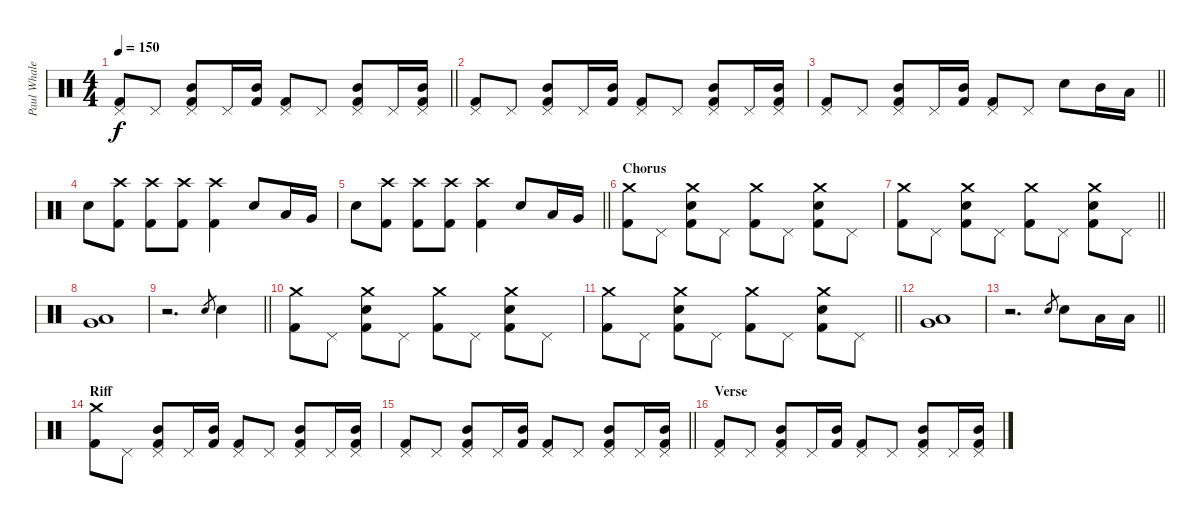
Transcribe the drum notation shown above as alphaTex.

\track ("Paul Whaley" "Paul Whale") {instrument percussion}
\staff {score}
\articulation defaults
\ts (4 4)
\tempo 150
\clef neutral
\barLineRight lightlight
\ks c
("Kick (hit) 2" "Pedal Hi-Hat (hit)").8{dy f} "Pedal Hi-Hat (hit)".8 ("Kick (hit) 2" "Mid Tom (hit)" "Pedal Hi-Hat (hit)").8 "Pedal Hi-Hat (hit)".16 ("Kick (hit) 2" "Mid Tom (hit)").16 ("Kick (hit) 2" "Pedal Hi-Hat (hit)").8 "Pedal Hi-Hat (hit)".8 ("Kick (hit) 2" "Mid Tom (hit)" "Pedal Hi-Hat (hit)").8 "Pedal Hi-Hat (hit)".16 ("Kick (hit) 2" "Mid Tom (hit)" "Pedal Hi-Hat (hit)").16 |
("Kick (hit) 2" "Pedal Hi-Hat (hit)").8 "Pedal Hi-Hat (hit)".8 ("Kick (hit) 2" "Mid Tom (hit)" "Pedal Hi-Hat (hit)").8 "Pedal Hi-Hat (hit)".16 ("Kick (hit) 2" "Mid Tom (hit)").16 ("Kick (hit) 2" "Pedal Hi-Hat (hit)").8 "Pedal Hi-Hat (hit)".8 ("Kick (hit) 2" "Mid Tom (hit)" "Pedal Hi-Hat (hit)").8 "Pedal Hi-Hat (hit)".16 ("Kick (hit) 2" "Mid Tom (hit)" "Pedal Hi-Hat (hit)").16 |
\barLineRight lightlight
("Kick (hit) 2" "Pedal Hi-Hat (hit)").8 "Pedal Hi-Hat (hit)".8 ("Kick (hit) 2" "Mid Tom (hit)" "Pedal Hi-Hat (hit)").8 "Pedal Hi-Hat (hit)".16 ("Kick (hit) 2" "Mid Tom (hit)").16 ("Kick (hit) 2" "Pedal Hi-Hat (hit)").8 "Pedal Hi-Hat (hit)".8 "Snare (hit) 2".8 "Mid Tom (hit)".16 "Low Tom (hit)".16 |
"Snare (hit) 2".8 ("Kick (hit) 2" "Crash high (hit)").8 ("Kick (hit) 2" "Crash high (hit)").8 ("Kick (hit) 2" "Crash high (hit)").8 ("Kick (hit) 2" "Crash high (hit)").4 "Snare (hit) 2".8 "Low Tom (hit)".16 "Very Low Tom (hit)".16 |
\barLineRight lightlight "Snare (hit) 2".8
("Kick (hit) 2" "Crash high (hit)").8 ("Kick (hit) 2" "Crash high (hit)").8 ("Kick (hit) 2" "Crash high (hit)").8 ("Kick (hit) 2" "Crash high (hit)").4 "Snare (hit) 2".8 "Low Tom (hit)".16 "Very Low Tom (hit)".16 |
\section ("" "Chorus")
("Kick (hit) 2" "Crash medium (hit)").8 "Pedal Hi-Hat (hit)".8 ("Kick (hit) 2" "Snare (hit) 2" "Crash medium (hit)").8 "Pedal Hi-Hat (hit)".8 ("Kick (hit) 2" "Crash medium (hit)").8 "Pedal Hi-Hat (hit)".8 ("Kick (hit) 2" "Snare (hit) 2" "Crash medium (hit)").8 "Pedal Hi-Hat (hit)".8 |
\barLineRight lightlight
("Kick (hit) 2" "Crash medium (hit)").8 "Pedal Hi-Hat (hit)".8 ("Kick (hit) 2" "Snare (hit) 2" "Crash medium (hit)").8 "Pedal Hi-Hat (hit)".8 ("Kick (hit) 2" "Crash medium (hit)").8 "Pedal Hi-Hat (hit)".8 ("Kick (hit) 2" "Snare (hit) 2" "Crash medium (hit)").8 "Pedal Hi-Hat (hit)".8 |
("Low Tom (hit)" "Very Low Tom (hit)").1 |
\barLineRight lightlight
r.2{d} "Snare (hit) 2".8{gr} "Snare (hit) 2".4 |
("Kick (hit) 2" "Crash medium (hit)").8 "Pedal Hi-Hat (hit)".8 ("Kick (hit) 2" "Snare (hit) 2" "Crash medium (hit)").8 "Pedal Hi-Hat (hit)".8 ("Kick (hit) 2" "Crash medium (hit)").8 "Pedal Hi-Hat (hit)".8 ("Kick (hit) 2" "Snare (hit) 2" "Crash medium (hit)").8 "Pedal Hi-Hat (hit)".8 |
\barLineRight lightlight
("Kick (hit) 2" "Crash medium (hit)").8 "Pedal Hi-Hat (hit)".8 ("Kick (hit) 2" "Snare (hit) 2" "Crash medium (hit)").8 "Pedal Hi-Hat (hit)".8 ("Kick (hit) 2" "Crash medium (hit)").8 "Pedal Hi-Hat (hit)".8 ("Kick (hit) 2" "Snare (hit) 2" "Crash medium (hit)").8 "Pedal Hi-Hat (hit)".8 |
("Low Tom (hit)" "Very Low Tom (hit)").1 |
\barLineRight lightlight
r.2{d} "Snare (hit) 2".8{gr} "Snare (hit) 2".8 "Low Tom (hit)".16 "Low Tom (hit)".16 |
\section ("" "Riff")
("Kick (hit) 2" "Crash medium (hit)").8 "Pedal Hi-Hat (hit)".8 ("Kick (hit) 2" "Mid Tom (hit)" "Pedal Hi-Hat (hit)").8 "Pedal Hi-Hat (hit)".16 ("Kick (hit) 2" "Mid Tom (hit)").16 ("Kick (hit) 2" "Pedal Hi-Hat (hit)").8 "Pedal Hi-Hat (hit)".8 ("Kick (hit) 2" "Mid Tom (hit)" "Pedal Hi-Hat (hit)").8 "Pedal Hi-Hat (hit)".16 ("Kick (hit) 2" "Mid Tom (hit)" "Pedal Hi-Hat (hit)").16 |
\barLineRight lightlight
("Kick (hit) 2" "Pedal Hi-Hat (hit)").8 "Pedal Hi-Hat (hit)".8 ("Kick (hit) 2" "Mid Tom (hit)" "Pedal Hi-Hat (hit)").8 "Pedal Hi-Hat (hit)".16 ("Kick (hit) 2" "Mid Tom (hit)").16 ("Kick (hit) 2" "Pedal Hi-Hat (hit)").8 "Pedal Hi-Hat (hit)".8 ("Kick (hit) 2" "Mid Tom (hit)" "Pedal Hi-Hat (hit)").8 "Pedal Hi-Hat (hit)".16 ("Kick (hit) 2" "Mid Tom (hit)" "Pedal Hi-Hat (hit)").16 |
\section ("" "Verse")
("Kick (hit) 2" "Pedal Hi-Hat (hit)").8 "Pedal Hi-Hat (hit)".8 ("Kick (hit) 2" "Mid Tom (hit)" "Pedal Hi-Hat (hit)").8 "Pedal Hi-Hat (hit)".16 ("Kick (hit) 2" "Mid Tom (hit)").16 ("Kick (hit) 2" "Pedal Hi-Hat (hit)").8 "Pedal Hi-Hat (hit)".8 ("Kick (hit) 2" "Mid Tom (hit)" "Pedal Hi-Hat (hit)").8 "Pedal Hi-Hat (hit)".16 ("Kick (hit) 2" "Mid Tom (hit)" "Pedal Hi-Hat (hit)").16
